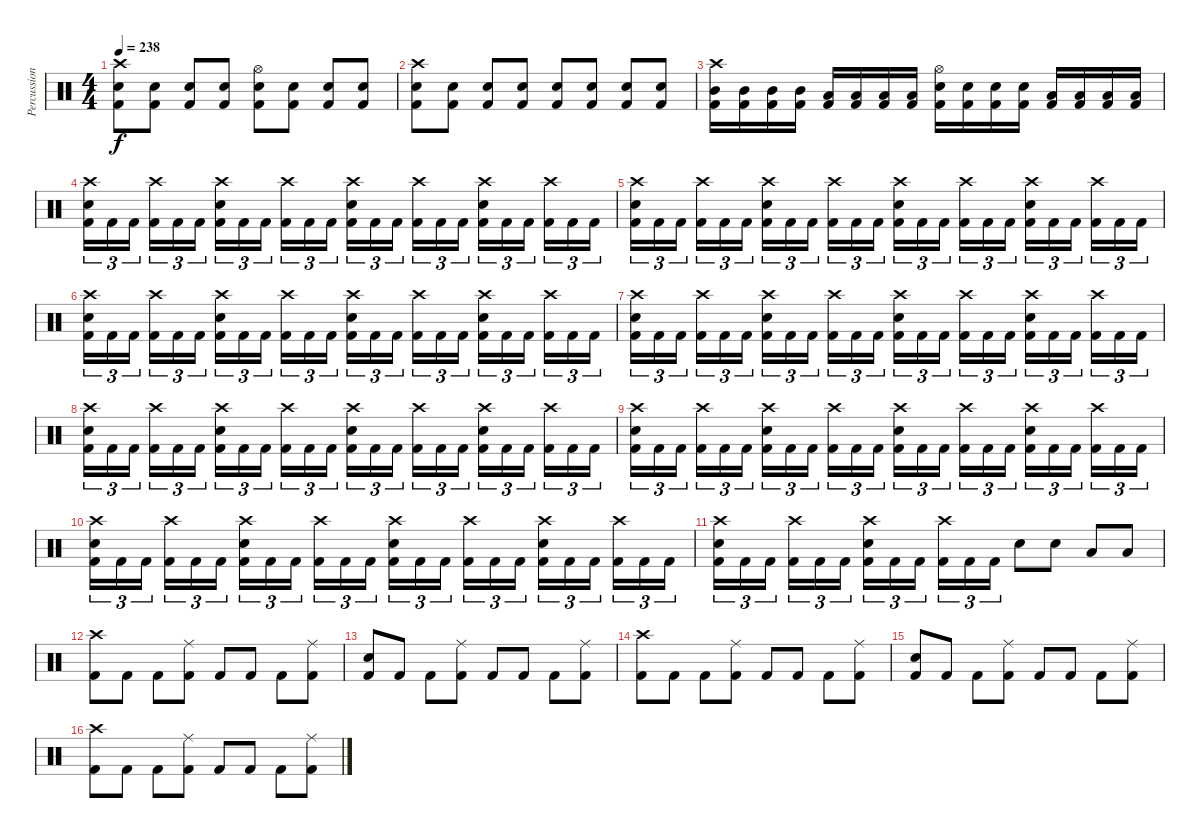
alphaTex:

\track ("Percussion" "Percussion") {instrument percussion}
\staff {score}
\articulation defaults
\ts (4 4)
\tempo 238
\clef neutral
\ks c
("Crash high (hit)" "Electric Snare (hit)" "Kick (hit) 2").8{dy f} ("Electric Snare (hit)" "Kick (hit) 2").8 ("Electric Snare (hit)" "Kick (hit) 2").8 ("Electric Snare (hit)" "Kick (hit) 2").8 ("Hi-Hat (open)" "Electric Snare (hit)" "Kick (hit) 2").8 ("Electric Snare (hit)" "Kick (hit) 2").8 ("Electric Snare (hit)" "Kick (hit) 2").8 ("Electric Snare (hit)" "Kick (hit) 2").8 |
("Crash high (hit)" "Electric Snare (hit)" "Kick (hit) 2").8 ("Electric Snare (hit)" "Kick (hit) 2").8 ("Electric Snare (hit)" "Kick (hit) 2").8 ("Electric Snare (hit)" "Kick (hit) 2").8 ("Electric Snare (hit)" "Kick (hit) 2").8 ("Electric Snare (hit)" "Kick (hit) 2").8 ("Electric Snare (hit)" "Kick (hit) 2").8 ("Electric Snare (hit)" "Kick (hit) 2").8 |
("Crash high (hit)" "Mid Tom (hit)" "Kick (hit) 2").16 ("Mid Tom (hit)" "Kick (hit) 2").16 ("Mid Tom (hit)" "Kick (hit) 2").16 ("Mid Tom (hit)" "Kick (hit) 2").16 ("Low Tom (hit)" "Kick (hit) 2").16 ("Low Tom (hit)" "Kick (hit) 2").16 ("Low Tom (hit)" "Kick (hit) 2").16 ("Low Tom (hit)" "Kick (hit) 2").16 ("Hi-Hat (open)" "Electric Snare (hit)" "Kick (hit) 2").16 ("Electric Snare (hit)" "Kick (hit) 2").16 ("Electric Snare (hit)" "Kick (hit) 2").16 ("Electric Snare (hit)" "Kick (hit) 2").16 ("Low Floor Tom (hit)" "Kick (hit) 2").16 ("Low Floor Tom (hit)" "Kick (hit) 2").16 ("Low Floor Tom (hit)" "Kick (hit) 2").16 ("Low Floor Tom (hit)" "Kick (hit) 2").16 |
("Crash high (hit)" "Electric Snare (hit)" "Kick (hit) 2").16{tu (3 2)} "Kick (hit) 2".16{tu (3 2)} "Kick (hit) 2".16{tu (3 2)} ("Crash high (hit)" "Kick (hit) 2").16{tu (3 2)} "Kick (hit) 2".16{tu (3 2)} "Kick (hit) 2".16{tu (3 2)} ("Crash high (hit)" "Snare (hit) 2" "Kick (hit) 2").16{tu (3 2)} "Kick (hit) 2".16{tu (3 2)} "Kick (hit) 2".16{tu (3 2)} ("Crash high (hit)" "Kick (hit) 2").16{tu (3 2)} "Kick (hit) 2".16{tu (3 2)} "Kick (hit) 2".16{tu (3 2)} ("Crash high (hit)" "Electric Snare (hit)" "Kick (hit) 2").16{tu (3 2)} "Kick (hit) 2".16{tu (3 2)} "Kick (hit) 2".16{tu (3 2)} ("Crash high (hit)" "Kick (hit) 2").16{tu (3 2)} "Kick (hit) 2".16{tu (3 2)} "Kick (hit) 2".16{tu (3 2)} ("Crash high (hit)" "Snare (hit) 2" "Kick (hit) 2").16{tu (3 2)} "Kick (hit) 2".16{tu (3 2)} "Kick (hit) 2".16{tu (3 2)} ("Crash high (hit)" "Kick (hit) 2").16{tu (3 2)} "Kick (hit) 2".16{tu (3 2)} "Kick (hit) 2".16{tu (3 2)} |
("Crash high (hit)" "Electric Snare (hit)" "Kick (hit) 2").16{tu (3 2)} "Kick (hit) 2".16{tu (3 2)} "Kick (hit) 2".16{tu (3 2)} ("Crash high (hit)" "Kick (hit) 2").16{tu (3 2)} "Kick (hit) 2".16{tu (3 2)} "Kick (hit) 2".16{tu (3 2)} ("Crash high (hit)" "Snare (hit) 2" "Kick (hit) 2").16{tu (3 2)} "Kick (hit) 2".16{tu (3 2)} "Kick (hit) 2".16{tu (3 2)} ("Crash high (hit)" "Kick (hit) 2").16{tu (3 2)} "Kick (hit) 2".16{tu (3 2)} "Kick (hit) 2".16{tu (3 2)} ("Crash high (hit)" "Electric Snare (hit)" "Kick (hit) 2").16{tu (3 2)} "Kick (hit) 2".16{tu (3 2)} "Kick (hit) 2".16{tu (3 2)} ("Crash high (hit)" "Kick (hit) 2").16{tu (3 2)} "Kick (hit) 2".16{tu (3 2)} "Kick (hit) 2".16{tu (3 2)} ("Crash high (hit)" "Snare (hit) 2" "Kick (hit) 2").16{tu (3 2)} "Kick (hit) 2".16{tu (3 2)} "Kick (hit) 2".16{tu (3 2)} ("Crash high (hit)" "Kick (hit) 2").16{tu (3 2)} "Kick (hit) 2".16{tu (3 2)} "Kick (hit) 2".16{tu (3 2)} |
("Crash high (hit)" "Electric Snare (hit)" "Kick (hit) 2").16{tu (3 2)} "Kick (hit) 2".16{tu (3 2)} "Kick (hit) 2".16{tu (3 2)} ("Crash high (hit)" "Kick (hit) 2").16{tu (3 2)} "Kick (hit) 2".16{tu (3 2)} "Kick (hit) 2".16{tu (3 2)} ("Crash high (hit)" "Snare (hit) 2" "Kick (hit) 2").16{tu (3 2)} "Kick (hit) 2".16{tu (3 2)} "Kick (hit) 2".16{tu (3 2)} ("Crash high (hit)" "Kick (hit) 2").16{tu (3 2)} "Kick (hit) 2".16{tu (3 2)} "Kick (hit) 2".16{tu (3 2)} ("Crash high (hit)" "Electric Snare (hit)" "Kick (hit) 2").16{tu (3 2)} "Kick (hit) 2".16{tu (3 2)} "Kick (hit) 2".16{tu (3 2)} ("Crash high (hit)" "Kick (hit) 2").16{tu (3 2)} "Kick (hit) 2".16{tu (3 2)} "Kick (hit) 2".16{tu (3 2)} ("Crash high (hit)" "Snare (hit) 2" "Kick (hit) 2").16{tu (3 2)} "Kick (hit) 2".16{tu (3 2)} "Kick (hit) 2".16{tu (3 2)} ("Crash high (hit)" "Kick (hit) 2").16{tu (3 2)} "Kick (hit) 2".16{tu (3 2)} "Kick (hit) 2".16{tu (3 2)} |
("Crash high (hit)" "Electric Snare (hit)" "Kick (hit) 2").16{tu (3 2)} "Kick (hit) 2".16{tu (3 2)} "Kick (hit) 2".16{tu (3 2)} ("Crash high (hit)" "Kick (hit) 2").16{tu (3 2)} "Kick (hit) 2".16{tu (3 2)} "Kick (hit) 2".16{tu (3 2)} ("Crash high (hit)" "Snare (hit) 2" "Kick (hit) 2").16{tu (3 2)} "Kick (hit) 2".16{tu (3 2)} "Kick (hit) 2".16{tu (3 2)} ("Crash high (hit)" "Kick (hit) 2").16{tu (3 2)} "Kick (hit) 2".16{tu (3 2)} "Kick (hit) 2".16{tu (3 2)} ("Crash high (hit)" "Electric Snare (hit)" "Kick (hit) 2").16{tu (3 2)} "Kick (hit) 2".16{tu (3 2)} "Kick (hit) 2".16{tu (3 2)} ("Crash high (hit)" "Kick (hit) 2").16{tu (3 2)} "Kick (hit) 2".16{tu (3 2)} "Kick (hit) 2".16{tu (3 2)} ("Crash high (hit)" "Snare (hit) 2" "Kick (hit) 2").16{tu (3 2)} "Kick (hit) 2".16{tu (3 2)} "Kick (hit) 2".16{tu (3 2)} ("Crash high (hit)" "Kick (hit) 2").16{tu (3 2)} "Kick (hit) 2".16{tu (3 2)} "Kick (hit) 2".16{tu (3 2)} |
("Crash high (hit)" "Electric Snare (hit)" "Kick (hit) 2").16{tu (3 2)} "Kick (hit) 2".16{tu (3 2)} "Kick (hit) 2".16{tu (3 2)} ("Crash high (hit)" "Kick (hit) 2").16{tu (3 2)} "Kick (hit) 2".16{tu (3 2)} "Kick (hit) 2".16{tu (3 2)} ("Crash high (hit)" "Snare (hit) 2" "Kick (hit) 2").16{tu (3 2)} "Kick (hit) 2".16{tu (3 2)} "Kick (hit) 2".16{tu (3 2)} ("Crash high (hit)" "Kick (hit) 2").16{tu (3 2)} "Kick (hit) 2".16{tu (3 2)} "Kick (hit) 2".16{tu (3 2)} ("Crash high (hit)" "Electric Snare (hit)" "Kick (hit) 2").16{tu (3 2)} "Kick (hit) 2".16{tu (3 2)} "Kick (hit) 2".16{tu (3 2)} ("Crash high (hit)" "Kick (hit) 2").16{tu (3 2)} "Kick (hit) 2".16{tu (3 2)} "Kick (hit) 2".16{tu (3 2)} ("Crash high (hit)" "Snare (hit) 2" "Kick (hit) 2").16{tu (3 2)} "Kick (hit) 2".16{tu (3 2)} "Kick (hit) 2".16{tu (3 2)} ("Crash high (hit)" "Kick (hit) 2").16{tu (3 2)} "Kick (hit) 2".16{tu (3 2)} "Kick (hit) 2".16{tu (3 2)} |
("Crash high (hit)" "Electric Snare (hit)" "Kick (hit) 2").16{tu (3 2)} "Kick (hit) 2".16{tu (3 2)} "Kick (hit) 2".16{tu (3 2)} ("Crash high (hit)" "Kick (hit) 2").16{tu (3 2)} "Kick (hit) 2".16{tu (3 2)} "Kick (hit) 2".16{tu (3 2)} ("Crash high (hit)" "Snare (hit) 2" "Kick (hit) 2").16{tu (3 2)} "Kick (hit) 2".16{tu (3 2)} "Kick (hit) 2".16{tu (3 2)} ("Crash high (hit)" "Kick (hit) 2").16{tu (3 2)} "Kick (hit) 2".16{tu (3 2)} "Kick (hit) 2".16{tu (3 2)} ("Crash high (hit)" "Electric Snare (hit)" "Kick (hit) 2").16{tu (3 2)} "Kick (hit) 2".16{tu (3 2)} "Kick (hit) 2".16{tu (3 2)} ("Crash high (hit)" "Kick (hit) 2").16{tu (3 2)} "Kick (hit) 2".16{tu (3 2)} "Kick (hit) 2".16{tu (3 2)} ("Crash high (hit)" "Snare (hit) 2" "Kick (hit) 2").16{tu (3 2)} "Kick (hit) 2".16{tu (3 2)} "Kick (hit) 2".16{tu (3 2)} ("Crash high (hit)" "Kick (hit) 2").16{tu (3 2)} "Kick (hit) 2".16{tu (3 2)} "Kick (hit) 2".16{tu (3 2)} |
("Crash high (hit)" "Electric Snare (hit)" "Kick (hit) 2").16{tu (3 2)} "Kick (hit) 2".16{tu (3 2)} "Kick (hit) 2".16{tu (3 2)} ("Crash high (hit)" "Kick (hit) 2").16{tu (3 2)} "Kick (hit) 2".16{tu (3 2)} "Kick (hit) 2".16{tu (3 2)} ("Crash high (hit)" "Snare (hit) 2" "Kick (hit) 2").16{tu (3 2)} "Kick (hit) 2".16{tu (3 2)} "Kick (hit) 2".16{tu (3 2)} ("Crash high (hit)" "Kick (hit) 2").16{tu (3 2)} "Kick (hit) 2".16{tu (3 2)} "Kick (hit) 2".16{tu (3 2)} ("Crash high (hit)" "Electric Snare (hit)" "Kick (hit) 2").16{tu (3 2)} "Kick (hit) 2".16{tu (3 2)} "Kick (hit) 2".16{tu (3 2)} ("Crash high (hit)" "Kick (hit) 2").16{tu (3 2)} "Kick (hit) 2".16{tu (3 2)} "Kick (hit) 2".16{tu (3 2)} ("Crash high (hit)" "Snare (hit) 2" "Kick (hit) 2").16{tu (3 2)} "Kick (hit) 2".16{tu (3 2)} "Kick (hit) 2".16{tu (3 2)} ("Crash high (hit)" "Kick (hit) 2").16{tu (3 2)} "Kick (hit) 2".16{tu (3 2)} "Kick (hit) 2".16{tu (3 2)} |
("Crash high (hit)" "Electric Snare (hit)" "Kick (hit) 2").16{tu (3 2)} "Kick (hit) 2".16{tu (3 2)} "Kick (hit) 2".16{tu (3 2)} ("Crash high (hit)" "Kick (hit) 2").16{tu (3 2)} "Kick (hit) 2".16{tu (3 2)} "Kick (hit) 2".16{tu (3 2)} ("Crash high (hit)" "Snare (hit) 2" "Kick (hit) 2").16{tu (3 2)} "Kick (hit) 2".16{tu (3 2)} "Kick (hit) 2".16{tu (3 2)} ("Crash high (hit)" "Kick (hit) 2").16{tu (3 2)} "Kick (hit) 2".16{tu (3 2)} "Kick (hit) 2".16{tu (3 2)} "Electric Snare (hit)".8 "Electric Snare (hit)".8 "Low Tom (hit)".8 "Low Tom (hit)".8 |
("Crash high (hit)" "Kick (hit) 2").8 "Kick (hit) 2".8 "Kick (hit) 2".8 ("Ride (middle)" "Kick (hit) 2").8 "Kick (hit) 2".8 "Kick (hit) 2".8 "Kick (hit) 2".8 ("Ride (middle)" "Kick (hit) 2").8 |
("Electric Snare (hit)" "Kick (hit) 2").8 "Kick (hit) 2".8 "Kick (hit) 2".8 ("Ride (middle)" "Kick (hit) 2").8 "Kick (hit) 2".8 "Kick (hit) 2".8 "Kick (hit) 2".8 ("Ride (middle)" "Kick (hit) 2").8 |
("Crash high (hit)" "Kick (hit) 2").8 "Kick (hit) 2".8 "Kick (hit) 2".8 ("Ride (middle)" "Kick (hit) 2").8 "Kick (hit) 2".8 "Kick (hit) 2".8 "Kick (hit) 2".8 ("Ride (middle)" "Kick (hit) 2").8 |
("Electric Snare (hit)" "Kick (hit) 2").8 "Kick (hit) 2".8 "Kick (hit) 2".8 ("Ride (middle)" "Kick (hit) 2").8 "Kick (hit) 2".8 "Kick (hit) 2".8 "Kick (hit) 2".8 ("Ride (middle)" "Kick (hit) 2").8 |
("Crash high (hit)" "Kick (hit) 2").8 "Kick (hit) 2".8 "Kick (hit) 2".8 ("Ride (middle)" "Kick (hit) 2").8 "Kick (hit) 2".8 "Kick (hit) 2".8 "Kick (hit) 2".8 ("Ride (middle)" "Kick (hit) 2").8
